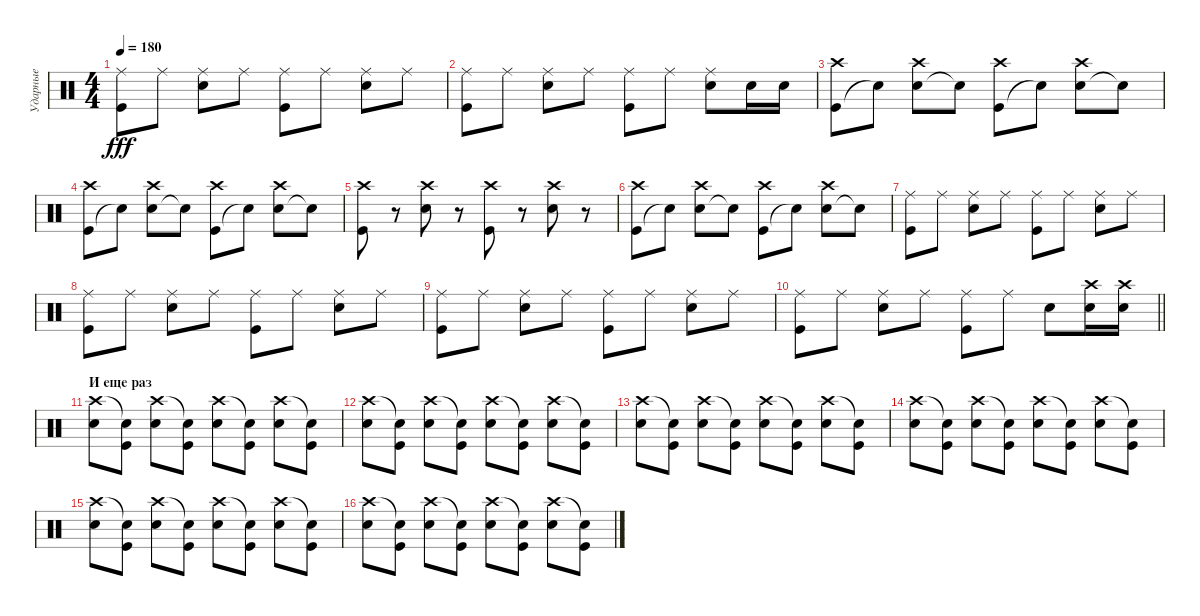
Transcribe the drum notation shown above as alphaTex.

\track ("Ударные" "Ударные") {instrument percussion}
\staff {score}
\articulation defaults
\ts (4 4)
\tempo 180
\clef neutral
\ks c
("Kick (hit)" "Ride (middle)").8{dy fff} "Ride (middle)".8 ("Electric Snare (hit)" "Ride (middle)").8 "Ride (middle)".8 ("Kick (hit)" "Ride (middle)").8 "Ride (middle)".8 ("Electric Snare (hit)" "Ride (middle)").8 "Ride (middle)".8 |
("Kick (hit)" "Ride (middle)").8 "Ride (middle)".8 ("Electric Snare (hit)" "Ride (middle)").8 "Ride (middle)".8 ("Kick (hit)" "Ride (middle)").8 "Ride (middle)".8 ("Electric Snare (hit)" "Ride (middle)").8 "Electric Snare (hit)".16 "Electric Snare (hit)".16 |
("Kick (hit)" "Crash high (hit)").8 "Snare (hit)"{t}.8 ("Electric Snare (hit)" "Crash high (hit)").8 "Snare (hit)"{t}.8 ("Kick (hit)" "Crash high (hit)").8 "Snare (hit)"{t}.8 ("Electric Snare (hit)" "Crash high (hit)").8 "Snare (hit)"{t}.8 |
("Kick (hit)" "Crash high (hit)").8 "Snare (hit)"{t}.8 ("Electric Snare (hit)" "Crash high (hit)").8 "Snare (hit)"{t}.8 ("Kick (hit)" "Crash high (hit)").8 "Snare (hit)"{t}.8 ("Electric Snare (hit)" "Crash high (hit)").8 "Snare (hit)"{t}.8 |
("Kick (hit)" "Crash high (hit)").8 r.8 ("Electric Snare (hit)" "Crash high (hit)").8 r.8 ("Kick (hit)" "Crash high (hit)").8 r.8 ("Electric Snare (hit)" "Crash high (hit)").8 r.8 |
("Kick (hit)" "Crash high (hit)").8 "Snare (hit)"{t}.8 ("Electric Snare (hit)" "Crash high (hit)").8 "Snare (hit)"{t}.8 ("Kick (hit)" "Crash high (hit)").8 "Snare (hit)"{t}.8 ("Electric Snare (hit)" "Crash high (hit)").8 "Snare (hit)"{t}.8 |
("Kick (hit)" "Ride (middle)").8 "Ride (middle)".8 ("Electric Snare (hit)" "Ride (middle)").8 "Ride (middle)".8 ("Kick (hit)" "Ride (middle)").8 "Ride (middle)".8 ("Electric Snare (hit)" "Ride (middle)").8 "Ride (middle)".8 |
("Kick (hit)" "Ride (middle)").8 "Ride (middle)".8 ("Electric Snare (hit)" "Ride (middle)").8 "Ride (middle)".8 ("Kick (hit)" "Ride (middle)").8 "Ride (middle)".8 ("Electric Snare (hit)" "Ride (middle)").8 "Ride (middle)".8 |
("Kick (hit)" "Ride (middle)").8 "Ride (middle)".8 ("Electric Snare (hit)" "Ride (middle)").8 "Ride (middle)".8 ("Kick (hit)" "Ride (middle)").8 "Ride (middle)".8 ("Electric Snare (hit)" "Ride (middle)").8 "Ride (middle)".8 |
\barLineRight lightlight
("Kick (hit)" "Ride (middle)").8 "Ride (middle)".8 ("Electric Snare (hit)" "Ride (middle)").8 "Ride (middle)".8 ("Kick (hit)" "Ride (middle)").8 "Ride (middle)".8 "Electric Snare (hit)".8 ("Electric Snare (hit)" "Crash high (hit)").16 ("Electric Snare (hit)" "Crash high (hit)").16 |
\section ("" "И еще раз")
("Electric Snare (hit)" "Crash high (hit)").8 ("Kick (hit)" "Snare (hit)"{t}).8 ("Electric Snare (hit)" "Crash high (hit)").8 ("Kick (hit)" "Snare (hit)"{t}).8 ("Electric Snare (hit)" "Crash high (hit)").8 ("Kick (hit)" "Snare (hit)"{t}).8 ("Electric Snare (hit)" "Crash high (hit)").8 ("Kick (hit)" "Snare (hit)"{t}).8 |
("Electric Snare (hit)" "Crash high (hit)").8 ("Kick (hit)" "Snare (hit)"{t}).8 ("Electric Snare (hit)" "Crash high (hit)").8 ("Kick (hit)" "Snare (hit)"{t}).8 ("Electric Snare (hit)" "Crash high (hit)").8 ("Kick (hit)" "Snare (hit)"{t}).8 ("Electric Snare (hit)" "Crash high (hit)").8 ("Kick (hit)" "Snare (hit)"{t}).8 |
("Electric Snare (hit)" "Crash high (hit)").8 ("Kick (hit)" "Snare (hit)"{t}).8 ("Electric Snare (hit)" "Crash high (hit)").8 ("Kick (hit)" "Snare (hit)"{t}).8 ("Electric Snare (hit)" "Crash high (hit)").8 ("Kick (hit)" "Snare (hit)"{t}).8 ("Electric Snare (hit)" "Crash high (hit)").8 ("Kick (hit)" "Snare (hit)"{t}).8 |
("Electric Snare (hit)" "Crash high (hit)").8 ("Kick (hit)" "Snare (hit)"{t}).8 ("Electric Snare (hit)" "Crash high (hit)").8 ("Kick (hit)" "Snare (hit)"{t}).8 ("Electric Snare (hit)" "Crash high (hit)").8 ("Kick (hit)" "Snare (hit)"{t}).8 ("Electric Snare (hit)" "Crash high (hit)").8 ("Kick (hit)" "Snare (hit)"{t}).8 |
("Electric Snare (hit)" "Crash high (hit)").8 ("Kick (hit)" "Snare (hit)"{t}).8 ("Electric Snare (hit)" "Crash high (hit)").8 ("Kick (hit)" "Snare (hit)"{t}).8 ("Electric Snare (hit)" "Crash high (hit)").8 ("Kick (hit)" "Snare (hit)"{t}).8 ("Electric Snare (hit)" "Crash high (hit)").8 ("Kick (hit)" "Snare (hit)"{t}).8 |
("Electric Snare (hit)" "Crash high (hit)").8 ("Kick (hit)" "Snare (hit)"{t}).8 ("Electric Snare (hit)" "Crash high (hit)").8 ("Kick (hit)" "Snare (hit)"{t}).8 ("Electric Snare (hit)" "Crash high (hit)").8 ("Kick (hit)" "Snare (hit)"{t}).8 ("Electric Snare (hit)" "Crash high (hit)").8 ("Kick (hit)" "Snare (hit)"{t}).8
